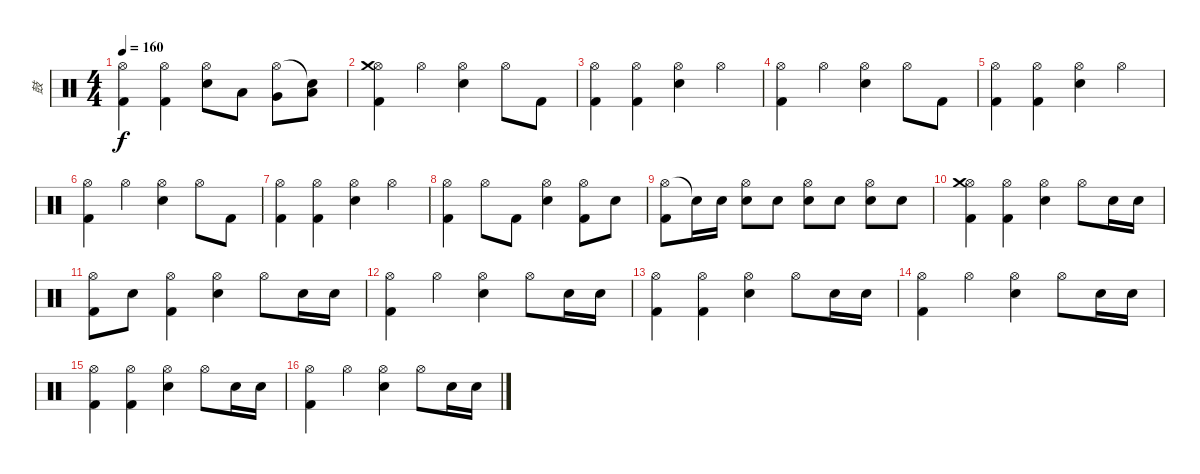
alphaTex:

\track ("鼓" "鼓") {instrument percussion}
\staff {score}
\articulation defaults
\ts (4 4)
\tempo 160
\clef neutral
\ks c
("Hi-Hat (open)" "Kick (hit) 2").4{dy f} ("Hi-Hat (open)" "Kick (hit) 2").4 ("Hi-Hat (open)" "Electric Snare (hit)").8 "Low Tom (hit)".8 ("Hi-Hat (open)" "Very Low Tom (hit)").8 ("Snare (hit)"{t} "Low Floor Tom (hit)").8 |
("Hi-Hat (open)" "Crash medium (hit)" "Kick (hit) 2").4 "Hi-Hat (open)".4 ("Hi-Hat (open)" "Electric Snare (hit)").4 "Hi-Hat (open)".8 "Kick (hit) 2".8 |
("Hi-Hat (open)" "Kick (hit) 2").4 ("Hi-Hat (open)" "Kick (hit) 2").4 ("Hi-Hat (open)" "Electric Snare (hit)").4 "Hi-Hat (open)".4 |
("Hi-Hat (open)" "Kick (hit) 2").4 "Hi-Hat (open)".4 ("Hi-Hat (open)" "Electric Snare (hit)").4 "Hi-Hat (open)".8 "Kick (hit) 2".8 |
("Hi-Hat (open)" "Kick (hit) 2").4 ("Hi-Hat (open)" "Kick (hit) 2").4 ("Hi-Hat (open)" "Electric Snare (hit)").4 "Hi-Hat (open)".4 |
("Hi-Hat (open)" "Kick (hit) 2").4 "Hi-Hat (open)".4 ("Hi-Hat (open)" "Electric Snare (hit)").4 "Hi-Hat (open)".8 "Kick (hit) 2".8 |
("Hi-Hat (open)" "Kick (hit) 2").4 ("Hi-Hat (open)" "Kick (hit) 2").4 ("Hi-Hat (open)" "Electric Snare (hit)").4 "Hi-Hat (open)".4 |
("Hi-Hat (open)" "Kick (hit) 2").4 "Hi-Hat (open)".8 "Kick (hit) 2".8 ("Hi-Hat (open)" "Electric Snare (hit)").4 ("Hi-Hat (open)" "Kick (hit) 2").8 "Electric Snare (hit)".8 |
("Hi-Hat (open)" "Kick (hit) 2").8 "Snare (hit)"{t}.16 "Electric Snare (hit)".16 ("Hi-Hat (open)" "Electric Snare (hit)").8 "Electric Snare (hit)".8 ("Hi-Hat (open)" "Electric Snare (hit)").8 "Electric Snare (hit)".8 ("Hi-Hat (open)" "Electric Snare (hit)").8 "Electric Snare (hit)".8 |
("Hi-Hat (open)" "Crash medium (hit)" "Kick (hit) 2").4 ("Hi-Hat (open)" "Kick (hit) 2").4 ("Hi-Hat (open)" "Electric Snare (hit)").4 "Hi-Hat (open)".8 "Electric Snare (hit)".16 "Electric Snare (hit)".16 |
("Hi-Hat (open)" "Kick (hit) 2").8 "Electric Snare (hit)".8 ("Hi-Hat (open)" "Kick (hit) 2").4 ("Hi-Hat (open)" "Electric Snare (hit)").4 "Hi-Hat (open)".8 "Electric Snare (hit)".16 "Electric Snare (hit)".16 |
("Hi-Hat (open)" "Kick (hit) 2").4 "Hi-Hat (open)".4 ("Hi-Hat (open)" "Electric Snare (hit)").4 "Hi-Hat (open)".8 "Electric Snare (hit)".16 "Electric Snare (hit)".16 |
("Hi-Hat (open)" "Kick (hit) 2").4 ("Hi-Hat (open)" "Kick (hit) 2").4 ("Hi-Hat (open)" "Electric Snare (hit)").4 "Hi-Hat (open)".8 "Electric Snare (hit)".16 "Electric Snare (hit)".16 |
("Hi-Hat (open)" "Kick (hit) 2").4 "Hi-Hat (open)".4 ("Hi-Hat (open)" "Electric Snare (hit)").4 "Hi-Hat (open)".8 "Electric Snare (hit)".16 "Electric Snare (hit)".16 |
("Hi-Hat (open)" "Kick (hit) 2").4 ("Hi-Hat (open)" "Kick (hit) 2").4 ("Hi-Hat (open)" "Electric Snare (hit)").4 "Hi-Hat (open)".8 "Electric Snare (hit)".16 "Electric Snare (hit)".16 |
("Hi-Hat (open)" "Kick (hit) 2").4 "Hi-Hat (open)".4 ("Hi-Hat (open)" "Electric Snare (hit)").4 "Hi-Hat (open)".8 "Electric Snare (hit)".16 "Electric Snare (hit)".16
